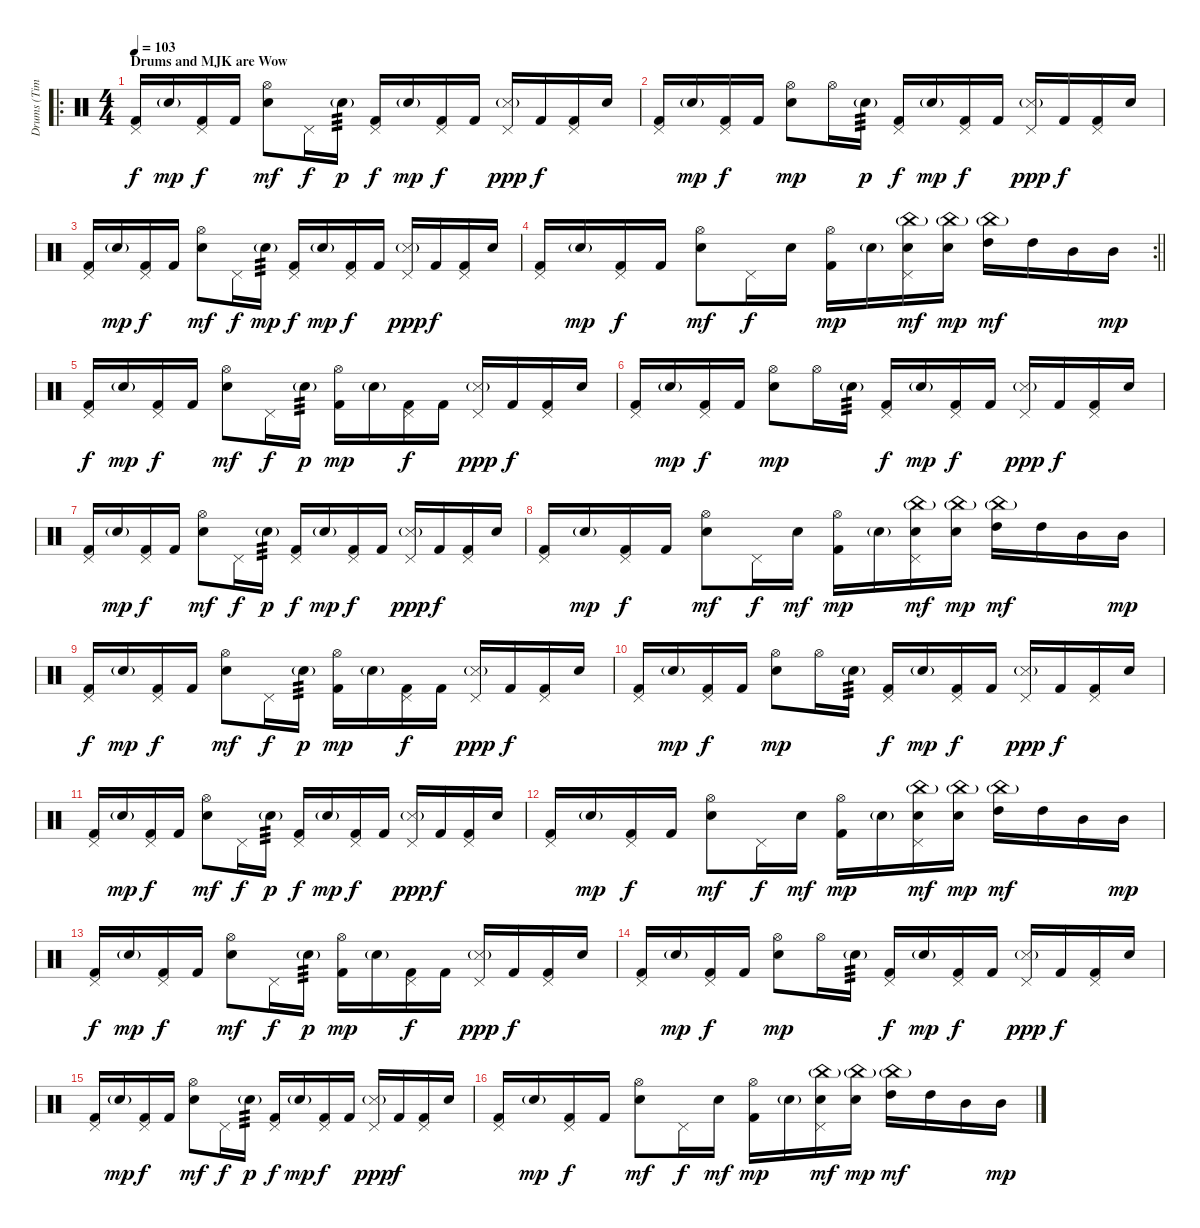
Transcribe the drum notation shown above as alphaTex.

\track ("Drums (Tim Alexander)" "Drums (Tim") {instrument percussion}
\staff {score}
\articulation defaults
\ro
\ts (4 4)
\section ("" "Drums and MJK are Wow")
\tempo 103
\clef neutral
\ks c
("Pedal Hi-Hat (hit)" "Kick (hit) 2").16{dy f volume 13} "Electric Snare (hit)"{g}.16{dy mp} ("Pedal Hi-Hat (hit)" "Kick (hit) 2").16{dy f} "Kick (hit) 2".16 ("Hi-Hat (open)" "Electric Snare (hit)").8{dy mf} "Pedal Hi-Hat (hit)".16{dy f} "Electric Snare (hit)"{g}.16{tp 3 dy p} ("Pedal Hi-Hat (hit)" "Kick (hit) 2").16{dy f} "Electric Snare (hit)"{g}.16{dy mp} ("Pedal Hi-Hat (hit)" "Kick (hit) 2").16{dy f} "Kick (hit) 2".16 ("Pedal Hi-Hat (hit)" "Snare (side stick) 3"{g}).16{dy ppp} "Kick (hit) 2".16{dy f} ("Pedal Hi-Hat (hit)" "Kick (hit) 2").16 "Electric Snare (hit)".16 |
("Pedal Hi-Hat (hit)" "Kick (hit) 2").16 "Electric Snare (hit)"{g}.16{dy mp} ("Pedal Hi-Hat (hit)" "Kick (hit) 2").16{dy f} "Kick (hit) 2".16 ("Hi-Hat (open)" "Electric Snare (hit)").8{dy mp} "Hi-Hat (open)".16 "Electric Snare (hit)"{g}.16{tp 3 dy p} ("Pedal Hi-Hat (hit)" "Kick (hit) 2").16{dy f} "Electric Snare (hit)"{g}.16{dy mp} ("Pedal Hi-Hat (hit)" "Kick (hit) 2").16{dy f} "Kick (hit) 2".16 ("Pedal Hi-Hat (hit)" "Snare (side stick) 3"{g}).16{dy ppp} "Kick (hit) 2".16{dy f} ("Pedal Hi-Hat (hit)" "Kick (hit) 2").16 "Electric Snare (hit)".16 |
("Pedal Hi-Hat (hit)" "Kick (hit) 2").16 "Electric Snare (hit)"{g}.16{dy mp} ("Pedal Hi-Hat (hit)" "Kick (hit) 2").16{dy f} "Kick (hit) 2".16 ("Hi-Hat (open)" "Electric Snare (hit)").8{dy mf} "Pedal Hi-Hat (hit)".16{dy f} "Electric Snare (hit)"{g}.16{tp 3 dy mp} ("Pedal Hi-Hat (hit)" "Kick (hit) 2").16{dy f} "Electric Snare (hit)"{g}.16{dy mp} ("Pedal Hi-Hat (hit)" "Kick (hit) 2").16{dy f} "Kick (hit) 2".16 ("Pedal Hi-Hat (hit)" "Snare (side stick) 3"{g}).16{dy ppp} "Kick (hit) 2".16{dy f} ("Pedal Hi-Hat (hit)" "Kick (hit) 2").16 "Electric Snare (hit)".16 |
\rc 2
\barLineRight lightlight
("Pedal Hi-Hat (hit)" "Kick (hit) 2").16 "Electric Snare (hit)"{g}.16{dy mp} ("Pedal Hi-Hat (hit)" "Kick (hit) 2").16{dy f} "Kick (hit) 2".16 ("Hi-Hat (open)" "Electric Snare (hit)").8{dy mf} "Pedal Hi-Hat (hit)".16{dy f} "Electric Snare (hit)".16 ("Hi-Hat (open)" "Kick (hit) 2").16{dy mp} "Electric Snare (hit)"{g}.16 ("China (hit)"{g} "Pedal Hi-Hat (hit)" "Electric Snare (hit)").16{dy mf} ("China (hit)"{g} "Electric Snare (hit)").16{dy mp} ("China (hit)"{g} "High Tom (hit)").16{dy mf} "High Tom (hit)".16 "Mid Tom (hit)".16 "Mid Tom (hit)".16{dy mp} |
("Pedal Hi-Hat (hit)" "Kick (hit) 2").16{dy f} "Electric Snare (hit)"{g}.16{dy mp} ("Pedal Hi-Hat (hit)" "Kick (hit) 2").16{dy f} "Kick (hit) 2".16 ("Hi-Hat (open)" "Electric Snare (hit)").8{dy mf} "Pedal Hi-Hat (hit)".16{dy f} "Electric Snare (hit)"{g}.16{tp 3 dy p} ("Hi-Hat (open)" "Kick (hit) 2").16{dy mp} "Electric Snare (hit)"{g}.16 ("Pedal Hi-Hat (hit)" "Kick (hit) 2").16{dy f} "Kick (hit) 2".16 ("Pedal Hi-Hat (hit)" "Snare (side stick) 3"{g}).16{dy ppp} "Kick (hit) 2".16{dy f} ("Pedal Hi-Hat (hit)" "Kick (hit) 2").16 "Electric Snare (hit)".16 |
("Pedal Hi-Hat (hit)" "Kick (hit) 2").16 "Electric Snare (hit)"{g}.16{dy mp} ("Pedal Hi-Hat (hit)" "Kick (hit) 2").16{dy f} "Kick (hit) 2".16 ("Hi-Hat (open)" "Electric Snare (hit)").8{dy mp} "Hi-Hat (open)".16 "Electric Snare (hit)"{g}.16{tp 3} ("Pedal Hi-Hat (hit)" "Kick (hit) 2").16{dy f} "Electric Snare (hit)"{g}.16{dy mp} ("Pedal Hi-Hat (hit)" "Kick (hit) 2").16{dy f} "Kick (hit) 2".16 ("Pedal Hi-Hat (hit)" "Snare (side stick) 3"{g}).16{dy ppp} "Kick (hit) 2".16{dy f} ("Pedal Hi-Hat (hit)" "Kick (hit) 2").16 "Electric Snare (hit)".16 |
("Pedal Hi-Hat (hit)" "Kick (hit) 2").16 "Electric Snare (hit)"{g}.16{dy mp} ("Pedal Hi-Hat (hit)" "Kick (hit) 2").16{dy f} "Kick (hit) 2".16 ("Hi-Hat (open)" "Electric Snare (hit)").8{dy mf} "Pedal Hi-Hat (hit)".16{dy f} "Electric Snare (hit)"{g}.16{tp 3 dy p} ("Pedal Hi-Hat (hit)" "Kick (hit) 2").16{dy f} "Electric Snare (hit)"{g}.16{dy mp} ("Pedal Hi-Hat (hit)" "Kick (hit) 2").16{dy f} "Kick (hit) 2".16 ("Pedal Hi-Hat (hit)" "Snare (side stick) 3"{g}).16{dy ppp} "Kick (hit) 2".16{dy f} ("Pedal Hi-Hat (hit)" "Kick (hit) 2").16 "Electric Snare (hit)".16 |
("Pedal Hi-Hat (hit)" "Kick (hit) 2").16 "Electric Snare (hit)"{g}.16{dy mp} ("Pedal Hi-Hat (hit)" "Kick (hit) 2").16{dy f} "Kick (hit) 2".16 ("Hi-Hat (open)" "Electric Snare (hit)").8{dy mf} "Pedal Hi-Hat (hit)".16{dy f} "Electric Snare (hit)".16{dy mf} ("Hi-Hat (open)" "Kick (hit) 2").16{dy mp} "Electric Snare (hit)"{g}.16 ("China (hit)"{g} "Pedal Hi-Hat (hit)" "Electric Snare (hit)").16{dy mf} ("China (hit)"{g} "Electric Snare (hit)").16{dy mp} ("China (hit)"{g} "High Tom (hit)").16{dy mf} "High Tom (hit)".16 "Mid Tom (hit)".16 "Mid Tom (hit)".16{dy mp} |
("Pedal Hi-Hat (hit)" "Kick (hit) 2").16{dy f} "Electric Snare (hit)"{g}.16{dy mp} ("Pedal Hi-Hat (hit)" "Kick (hit) 2").16{dy f} "Kick (hit) 2".16 ("Hi-Hat (open)" "Electric Snare (hit)").8{dy mf} "Pedal Hi-Hat (hit)".16{dy f} "Electric Snare (hit)"{g}.16{tp 3 dy p} ("Hi-Hat (open)" "Kick (hit) 2").16{dy mp} "Electric Snare (hit)"{g}.16 ("Pedal Hi-Hat (hit)" "Kick (hit) 2").16{dy f} "Kick (hit) 2".16 ("Pedal Hi-Hat (hit)" "Snare (side stick) 3"{g}).16{dy ppp} "Kick (hit) 2".16{dy f} ("Pedal Hi-Hat (hit)" "Kick (hit) 2").16 "Electric Snare (hit)".16 |
("Pedal Hi-Hat (hit)" "Kick (hit) 2").16 "Electric Snare (hit)"{g}.16{dy mp} ("Pedal Hi-Hat (hit)" "Kick (hit) 2").16{dy f} "Kick (hit) 2".16 ("Hi-Hat (open)" "Electric Snare (hit)").8{dy mp} "Hi-Hat (open)".16 "Electric Snare (hit)"{g}.16{tp 3} ("Pedal Hi-Hat (hit)" "Kick (hit) 2").16{dy f} "Electric Snare (hit)"{g}.16{dy mp} ("Pedal Hi-Hat (hit)" "Kick (hit) 2").16{dy f} "Kick (hit) 2".16 ("Pedal Hi-Hat (hit)" "Snare (side stick) 3"{g}).16{dy ppp} "Kick (hit) 2".16{dy f} ("Pedal Hi-Hat (hit)" "Kick (hit) 2").16 "Electric Snare (hit)".16 |
("Pedal Hi-Hat (hit)" "Kick (hit) 2").16 "Electric Snare (hit)"{g}.16{dy mp} ("Pedal Hi-Hat (hit)" "Kick (hit) 2").16{dy f} "Kick (hit) 2".16 ("Hi-Hat (open)" "Electric Snare (hit)").8{dy mf} "Pedal Hi-Hat (hit)".16{dy f} "Electric Snare (hit)"{g}.16{tp 3 dy p} ("Pedal Hi-Hat (hit)" "Kick (hit) 2").16{dy f} "Electric Snare (hit)"{g}.16{dy mp} ("Pedal Hi-Hat (hit)" "Kick (hit) 2").16{dy f} "Kick (hit) 2".16 ("Pedal Hi-Hat (hit)" "Snare (side stick) 3"{g}).16{dy ppp} "Kick (hit) 2".16{dy f} ("Pedal Hi-Hat (hit)" "Kick (hit) 2").16 "Electric Snare (hit)".16 |
("Pedal Hi-Hat (hit)" "Kick (hit) 2").16 "Electric Snare (hit)"{g}.16{dy mp} ("Pedal Hi-Hat (hit)" "Kick (hit) 2").16{dy f} "Kick (hit) 2".16 ("Hi-Hat (open)" "Electric Snare (hit)").8{dy mf} "Pedal Hi-Hat (hit)".16{dy f} "Electric Snare (hit)".16{dy mf} ("Hi-Hat (open)" "Kick (hit) 2").16{dy mp} "Electric Snare (hit)"{g}.16 ("China (hit)"{g} "Pedal Hi-Hat (hit)" "Electric Snare (hit)").16{dy mf} ("China (hit)"{g} "Electric Snare (hit)").16{dy mp} ("China (hit)"{g} "High Tom (hit)").16{dy mf} "High Tom (hit)".16 "Mid Tom (hit)".16 "Mid Tom (hit)".16{dy mp} |
("Pedal Hi-Hat (hit)" "Kick (hit) 2").16{dy f} "Electric Snare (hit)"{g}.16{dy mp} ("Pedal Hi-Hat (hit)" "Kick (hit) 2").16{dy f} "Kick (hit) 2".16 ("Hi-Hat (open)" "Electric Snare (hit)").8{dy mf} "Pedal Hi-Hat (hit)".16{dy f} "Electric Snare (hit)"{g}.16{tp 3 dy p} ("Hi-Hat (open)" "Kick (hit) 2").16{dy mp} "Electric Snare (hit)"{g}.16 ("Pedal Hi-Hat (hit)" "Kick (hit) 2").16{dy f} "Kick (hit) 2".16 ("Pedal Hi-Hat (hit)" "Snare (side stick) 3"{g}).16{dy ppp} "Kick (hit) 2".16{dy f} ("Pedal Hi-Hat (hit)" "Kick (hit) 2").16 "Electric Snare (hit)".16 |
("Pedal Hi-Hat (hit)" "Kick (hit) 2").16 "Electric Snare (hit)"{g}.16{dy mp} ("Pedal Hi-Hat (hit)" "Kick (hit) 2").16{dy f} "Kick (hit) 2".16 ("Hi-Hat (open)" "Electric Snare (hit)").8{dy mp} "Hi-Hat (open)".16 "Electric Snare (hit)"{g}.16{tp 3} ("Pedal Hi-Hat (hit)" "Kick (hit) 2").16{dy f} "Electric Snare (hit)"{g}.16{dy mp} ("Pedal Hi-Hat (hit)" "Kick (hit) 2").16{dy f} "Kick (hit) 2".16 ("Pedal Hi-Hat (hit)" "Snare (side stick) 3"{g}).16{dy ppp} "Kick (hit) 2".16{dy f} ("Pedal Hi-Hat (hit)" "Kick (hit) 2").16 "Electric Snare (hit)".16 |
("Pedal Hi-Hat (hit)" "Kick (hit) 2").16 "Electric Snare (hit)"{g}.16{dy mp} ("Pedal Hi-Hat (hit)" "Kick (hit) 2").16{dy f} "Kick (hit) 2".16 ("Hi-Hat (open)" "Electric Snare (hit)").8{dy mf} "Pedal Hi-Hat (hit)".16{dy f} "Electric Snare (hit)"{g}.16{tp 3 dy p} ("Pedal Hi-Hat (hit)" "Kick (hit) 2").16{dy f} "Electric Snare (hit)"{g}.16{dy mp} ("Pedal Hi-Hat (hit)" "Kick (hit) 2").16{dy f} "Kick (hit) 2".16 ("Pedal Hi-Hat (hit)" "Snare (side stick) 3"{g}).16{dy ppp} "Kick (hit) 2".16{dy f} ("Pedal Hi-Hat (hit)" "Kick (hit) 2").16 "Electric Snare (hit)".16 |
("Pedal Hi-Hat (hit)" "Kick (hit) 2").16 "Electric Snare (hit)"{g}.16{dy mp} ("Pedal Hi-Hat (hit)" "Kick (hit) 2").16{dy f} "Kick (hit) 2".16 ("Hi-Hat (open)" "Electric Snare (hit)").8{dy mf} "Pedal Hi-Hat (hit)".16{dy f} "Electric Snare (hit)".16{dy mf} ("Hi-Hat (open)" "Kick (hit) 2").16{dy mp} "Electric Snare (hit)"{g}.16 ("China (hit)"{g} "Pedal Hi-Hat (hit)" "Electric Snare (hit)").16{dy mf} ("China (hit)"{g} "Electric Snare (hit)").16{dy mp} ("China (hit)"{g} "High Tom (hit)").16{dy mf} "High Tom (hit)".16 "Mid Tom (hit)".16 "Mid Tom (hit)".16{dy mp}
